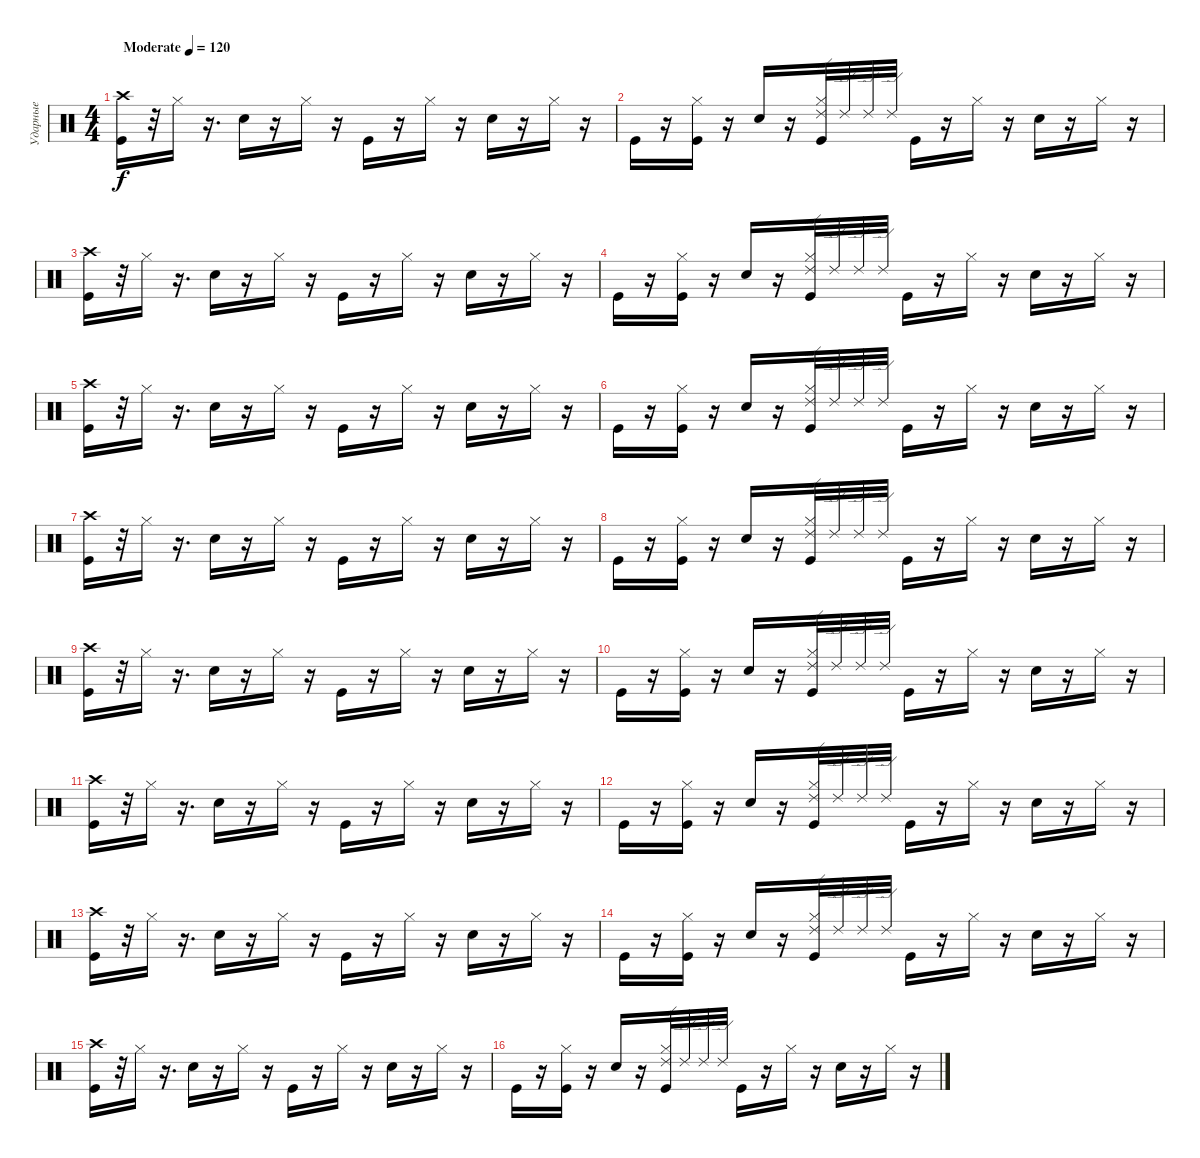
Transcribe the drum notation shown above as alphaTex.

\track ("Ударные" "Ударные") {instrument percussion}
\staff {score}
\articulation defaults
\ts (4 4)
\tempo (120 "Moderate")
\clef neutral
\ks c
("Crash high (hit)" "Kick (hit)").16{dy f} r.32 "Hi-Hat (closed)".16 r.16{d} "Electric Snare (hit)".16 r.16 "Hi-Hat (closed)".16 r.16 "Kick (hit)".16 r.16 "Hi-Hat (closed)".16 r.16 "Electric Snare (hit)".16 r.16 "Hi-Hat (closed)".16 r.16 |
"Kick (hit)".16 r.16 ("Hi-Hat (closed)" "Kick (hit)").16 r.16 "Electric Snare (hit)".16 r.16 ("Hi-Hat (closed)" "Kick (hit)" "Ride (edge) 2").32 "Ride (edge) 2".32 "Ride (edge) 2".32 "Ride (edge) 2".32 "Kick (hit)".16 r.16 "Hi-Hat (closed)".16 r.16 "Electric Snare (hit)".16 r.16 "Hi-Hat (closed)".16 r.16 |
("Crash high (hit)" "Kick (hit)").16 r.32 "Hi-Hat (closed)".16 r.16{d} "Electric Snare (hit)".16 r.16 "Hi-Hat (closed)".16 r.16 "Kick (hit)".16 r.16 "Hi-Hat (closed)".16 r.16 "Electric Snare (hit)".16 r.16 "Hi-Hat (closed)".16 r.16 |
"Kick (hit)".16 r.16 ("Hi-Hat (closed)" "Kick (hit)").16 r.16 "Electric Snare (hit)".16 r.16 ("Hi-Hat (closed)" "Kick (hit)" "Ride (edge) 2").32 "Ride (edge) 2".32 "Ride (edge) 2".32 "Ride (edge) 2".32 "Kick (hit)".16 r.16 "Hi-Hat (closed)".16 r.16 "Electric Snare (hit)".16 r.16 "Hi-Hat (closed)".16 r.16 |
("Crash high (hit)" "Kick (hit)").16 r.32 "Hi-Hat (closed)".16 r.16{d} "Electric Snare (hit)".16 r.16 "Hi-Hat (closed)".16 r.16 "Kick (hit)".16 r.16 "Hi-Hat (closed)".16 r.16 "Electric Snare (hit)".16 r.16 "Hi-Hat (closed)".16 r.16 |
"Kick (hit)".16 r.16 ("Hi-Hat (closed)" "Kick (hit)").16 r.16 "Electric Snare (hit)".16 r.16 ("Hi-Hat (closed)" "Kick (hit)" "Ride (edge) 2").32 "Ride (edge) 2".32 "Ride (edge) 2".32 "Ride (edge) 2".32 "Kick (hit)".16 r.16 "Hi-Hat (closed)".16 r.16 "Electric Snare (hit)".16 r.16 "Hi-Hat (closed)".16 r.16 |
("Crash high (hit)" "Kick (hit)").16 r.32 "Hi-Hat (closed)".16 r.16{d} "Electric Snare (hit)".16 r.16 "Hi-Hat (closed)".16 r.16 "Kick (hit)".16 r.16 "Hi-Hat (closed)".16 r.16 "Electric Snare (hit)".16 r.16 "Hi-Hat (closed)".16 r.16 |
"Kick (hit)".16 r.16 ("Hi-Hat (closed)" "Kick (hit)").16 r.16 "Electric Snare (hit)".16 r.16 ("Hi-Hat (closed)" "Kick (hit)" "Ride (edge) 2").32 "Ride (edge) 2".32 "Ride (edge) 2".32 "Ride (edge) 2".32 "Kick (hit)".16 r.16 "Hi-Hat (closed)".16 r.16 "Electric Snare (hit)".16 r.16 "Hi-Hat (closed)".16 r.16 |
("Crash high (hit)" "Kick (hit)").16 r.32 "Hi-Hat (closed)".16 r.16{d} "Electric Snare (hit)".16 r.16 "Hi-Hat (closed)".16 r.16 "Kick (hit)".16 r.16 "Hi-Hat (closed)".16 r.16 "Electric Snare (hit)".16 r.16 "Hi-Hat (closed)".16 r.16 |
"Kick (hit)".16 r.16 ("Hi-Hat (closed)" "Kick (hit)").16 r.16 "Electric Snare (hit)".16 r.16 ("Hi-Hat (closed)" "Kick (hit)" "Ride (edge) 2").32 "Ride (edge) 2".32 "Ride (edge) 2".32 "Ride (edge) 2".32 "Kick (hit)".16 r.16 "Hi-Hat (closed)".16 r.16 "Electric Snare (hit)".16 r.16 "Hi-Hat (closed)".16 r.16 |
("Crash high (hit)" "Kick (hit)").16 r.32 "Hi-Hat (closed)".16 r.16{d} "Electric Snare (hit)".16 r.16 "Hi-Hat (closed)".16 r.16 "Kick (hit)".16 r.16 "Hi-Hat (closed)".16 r.16 "Electric Snare (hit)".16 r.16 "Hi-Hat (closed)".16 r.16 |
"Kick (hit)".16 r.16 ("Hi-Hat (closed)" "Kick (hit)").16 r.16 "Electric Snare (hit)".16 r.16 ("Hi-Hat (closed)" "Kick (hit)" "Ride (edge) 2").32 "Ride (edge) 2".32 "Ride (edge) 2".32 "Ride (edge) 2".32 "Kick (hit)".16 r.16 "Hi-Hat (closed)".16 r.16 "Electric Snare (hit)".16 r.16 "Hi-Hat (closed)".16 r.16 |
("Crash high (hit)" "Kick (hit)").16 r.32 "Hi-Hat (closed)".16 r.16{d} "Electric Snare (hit)".16 r.16 "Hi-Hat (closed)".16 r.16 "Kick (hit)".16 r.16 "Hi-Hat (closed)".16 r.16 "Electric Snare (hit)".16 r.16 "Hi-Hat (closed)".16 r.16 |
"Kick (hit)".16 r.16 ("Hi-Hat (closed)" "Kick (hit)").16 r.16 "Electric Snare (hit)".16 r.16 ("Hi-Hat (closed)" "Kick (hit)" "Ride (edge) 2").32 "Ride (edge) 2".32 "Ride (edge) 2".32 "Ride (edge) 2".32 "Kick (hit)".16 r.16 "Hi-Hat (closed)".16 r.16 "Electric Snare (hit)".16 r.16 "Hi-Hat (closed)".16 r.16 |
("Crash high (hit)" "Kick (hit)").16 r.32 "Hi-Hat (closed)".16 r.16{d} "Electric Snare (hit)".16 r.16 "Hi-Hat (closed)".16 r.16 "Kick (hit)".16 r.16 "Hi-Hat (closed)".16 r.16 "Electric Snare (hit)".16 r.16 "Hi-Hat (closed)".16 r.16 |
"Kick (hit)".16 r.16 ("Hi-Hat (closed)" "Kick (hit)").16 r.16 "Electric Snare (hit)".16 r.16 ("Hi-Hat (closed)" "Kick (hit)" "Ride (edge) 2").32 "Ride (edge) 2".32 "Ride (edge) 2".32 "Ride (edge) 2".32 "Kick (hit)".16 r.16 "Hi-Hat (closed)".16 r.16 "Electric Snare (hit)".16 r.16 "Hi-Hat (closed)".16 r.16
